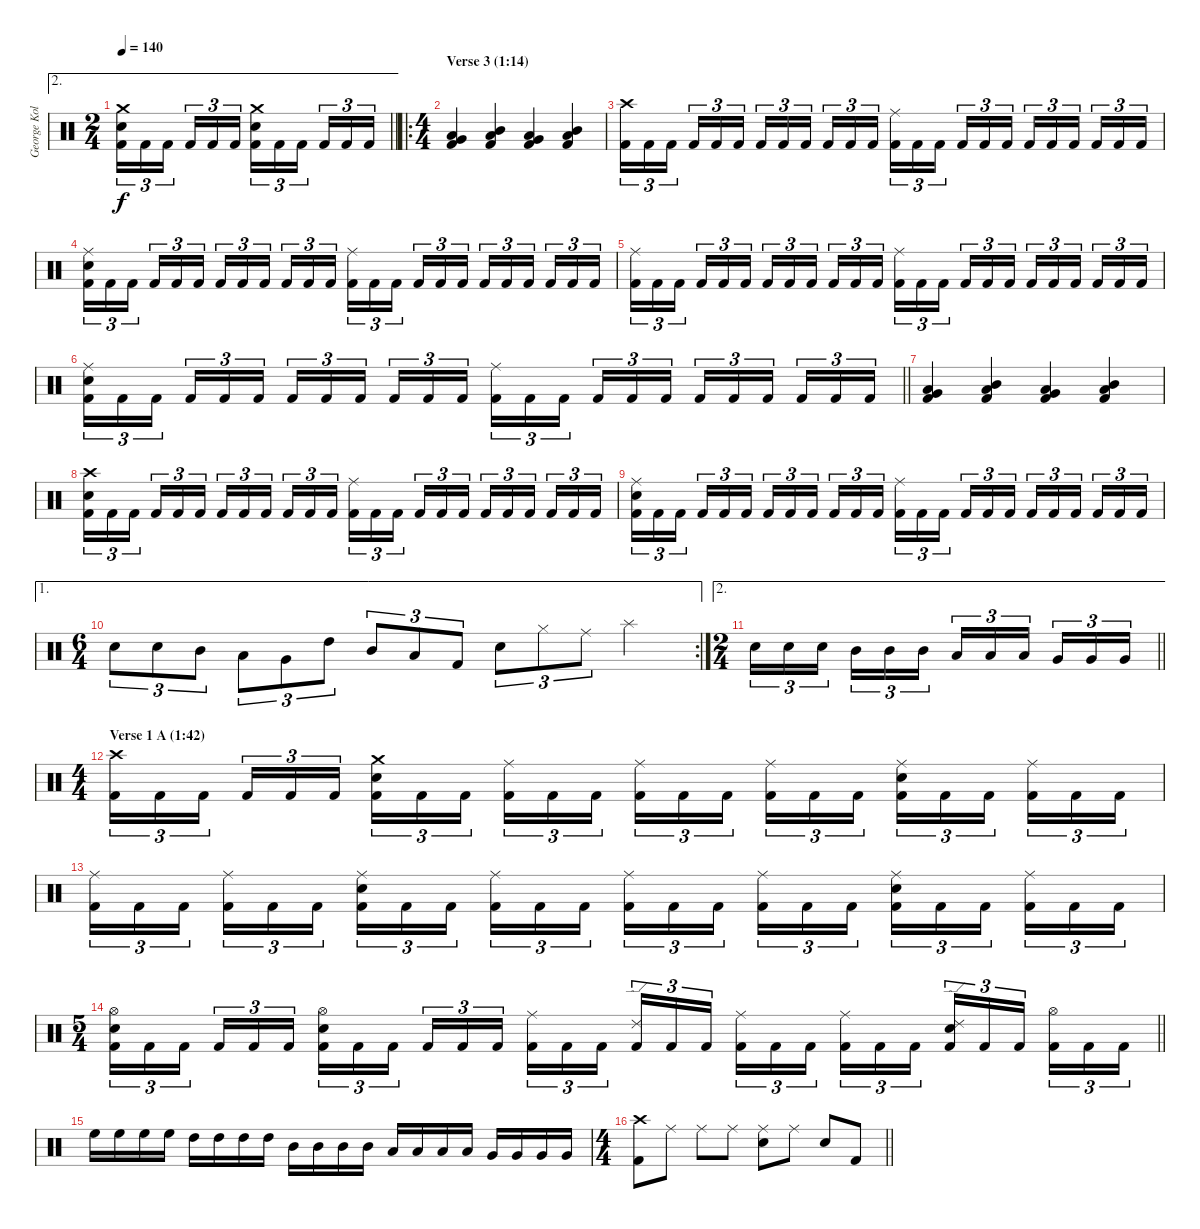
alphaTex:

\track ("George Kollias" "George Kol") {instrument percussion}
\staff {score}
\articulation defaults
\ae 2
\ts (2 4)
\tempo 140
\clef neutral
\barLineRight lightlight
\ks c
("Crash medium (hit)" "Electric Snare (hit)" "Kick (hit) 2").16{tu (3 2) dy f} "Kick (hit) 2".16{tu (3 2)} "Kick (hit) 2".16{tu (3 2) beam splitsecondary} "Kick (hit) 2".16{tu (3 2)} "Kick (hit) 2".16{tu (3 2)} "Kick (hit) 2".16{tu (3 2)} ("Crash medium (hit)" "Electric Snare (hit)" "Kick (hit) 2").16{tu (3 2)} "Kick (hit) 2".16{tu (3 2)} "Kick (hit) 2".16{tu (3 2) beam splitsecondary} "Kick (hit) 2".16{tu (3 2)} "Kick (hit) 2".16{tu (3 2)} "Kick (hit) 2".16{tu (3 2)} |
\ro
\ts (4 4)
\section ("" "Verse 3 (1:14)")
("Very Low Tom (hit)" "Low Tom (hit)" "Kick (hit) 2").4 ("Mid Tom (hit)" "Low Tom (hit)" "Kick (hit) 2").4 ("Very Low Tom (hit)" "Low Tom (hit)" "Kick (hit) 2").4 ("Mid Tom (hit)" "Low Tom (hit)" "Kick (hit) 2").4 |
("Crash high (hit)" "Kick (hit) 2").16{tu (3 2)} "Kick (hit) 2".16{tu (3 2)} "Kick (hit) 2".16{tu (3 2) beam splitsecondary} "Kick (hit) 2".16{tu (3 2)} "Kick (hit) 2".16{tu (3 2)} "Kick (hit) 2".16{tu (3 2)} "Kick (hit) 2".16{tu (3 2)} "Kick (hit) 2".16{tu (3 2)} "Kick (hit) 2".16{tu (3 2) beam splitsecondary} "Kick (hit) 2".16{tu (3 2)} "Kick (hit) 2".16{tu (3 2)} "Kick (hit) 2".16{tu (3 2)} ("Ride (middle)" "Kick (hit) 2").16{tu (3 2)} "Kick (hit) 2".16{tu (3 2)} "Kick (hit) 2".16{tu (3 2) beam splitsecondary} "Kick (hit) 2".16{tu (3 2)} "Kick (hit) 2".16{tu (3 2)} "Kick (hit) 2".16{tu (3 2)} "Kick (hit) 2".16{tu (3 2)} "Kick (hit) 2".16{tu (3 2)} "Kick (hit) 2".16{tu (3 2) beam splitsecondary} "Kick (hit) 2".16{tu (3 2)} "Kick (hit) 2".16{tu (3 2)} "Kick (hit) 2".16{tu (3 2)} |
("Ride (middle)" "Electric Snare (hit)" "Kick (hit) 2").16{tu (3 2)} "Kick (hit) 2".16{tu (3 2)} "Kick (hit) 2".16{tu (3 2) beam splitsecondary} "Kick (hit) 2".16{tu (3 2)} "Kick (hit) 2".16{tu (3 2)} "Kick (hit) 2".16{tu (3 2)} "Kick (hit) 2".16{tu (3 2)} "Kick (hit) 2".16{tu (3 2)} "Kick (hit) 2".16{tu (3 2) beam splitsecondary} "Kick (hit) 2".16{tu (3 2)} "Kick (hit) 2".16{tu (3 2)} "Kick (hit) 2".16{tu (3 2)} ("Ride (middle)" "Kick (hit) 2").16{tu (3 2)} "Kick (hit) 2".16{tu (3 2)} "Kick (hit) 2".16{tu (3 2) beam splitsecondary} "Kick (hit) 2".16{tu (3 2)} "Kick (hit) 2".16{tu (3 2)} "Kick (hit) 2".16{tu (3 2)} "Kick (hit) 2".16{tu (3 2)} "Kick (hit) 2".16{tu (3 2)} "Kick (hit) 2".16{tu (3 2) beam splitsecondary} "Kick (hit) 2".16{tu (3 2)} "Kick (hit) 2".16{tu (3 2)} "Kick (hit) 2".16{tu (3 2)} |
("Ride (middle)" "Kick (hit) 2").16{tu (3 2)} "Kick (hit) 2".16{tu (3 2)} "Kick (hit) 2".16{tu (3 2) beam splitsecondary} "Kick (hit) 2".16{tu (3 2)} "Kick (hit) 2".16{tu (3 2)} "Kick (hit) 2".16{tu (3 2)} "Kick (hit) 2".16{tu (3 2)} "Kick (hit) 2".16{tu (3 2)} "Kick (hit) 2".16{tu (3 2) beam splitsecondary} "Kick (hit) 2".16{tu (3 2)} "Kick (hit) 2".16{tu (3 2)} "Kick (hit) 2".16{tu (3 2)} ("Ride (middle)" "Kick (hit) 2").16{tu (3 2)} "Kick (hit) 2".16{tu (3 2)} "Kick (hit) 2".16{tu (3 2) beam splitsecondary} "Kick (hit) 2".16{tu (3 2)} "Kick (hit) 2".16{tu (3 2)} "Kick (hit) 2".16{tu (3 2)} "Kick (hit) 2".16{tu (3 2)} "Kick (hit) 2".16{tu (3 2)} "Kick (hit) 2".16{tu (3 2) beam splitsecondary} "Kick (hit) 2".16{tu (3 2)} "Kick (hit) 2".16{tu (3 2)} "Kick (hit) 2".16{tu (3 2)} |
\barLineRight lightlight
("Ride (middle)" "Electric Snare (hit)" "Kick (hit) 2").16{tu (3 2)} "Kick (hit) 2".16{tu (3 2)} "Kick (hit) 2".16{tu (3 2) beam splitsecondary} "Kick (hit) 2".16{tu (3 2)} "Kick (hit) 2".16{tu (3 2)} "Kick (hit) 2".16{tu (3 2)} "Kick (hit) 2".16{tu (3 2)} "Kick (hit) 2".16{tu (3 2)} "Kick (hit) 2".16{tu (3 2) beam splitsecondary} "Kick (hit) 2".16{tu (3 2)} "Kick (hit) 2".16{tu (3 2)} "Kick (hit) 2".16{tu (3 2)} ("Ride (middle)" "Kick (hit) 2").16{tu (3 2)} "Kick (hit) 2".16{tu (3 2)} "Kick (hit) 2".16{tu (3 2) beam splitsecondary} "Kick (hit) 2".16{tu (3 2)} "Kick (hit) 2".16{tu (3 2)} "Kick (hit) 2".16{tu (3 2)} "Kick (hit) 2".16{tu (3 2)} "Kick (hit) 2".16{tu (3 2)} "Kick (hit) 2".16{tu (3 2) beam splitsecondary} "Kick (hit) 2".16{tu (3 2)} "Kick (hit) 2".16{tu (3 2)} "Kick (hit) 2".16{tu (3 2)} |
("Very Low Tom (hit)" "Low Tom (hit)" "Kick (hit) 2").4 ("Mid Tom (hit)" "Low Tom (hit)" "Kick (hit) 2").4 ("Very Low Tom (hit)" "Low Tom (hit)" "Kick (hit) 2").4 ("Mid Tom (hit)" "Low Tom (hit)" "Kick (hit) 2").4 |
("Crash high (hit)" "Electric Snare (hit)" "Kick (hit) 2").16{tu (3 2)} "Kick (hit) 2".16{tu (3 2)} "Kick (hit) 2".16{tu (3 2) beam splitsecondary} "Kick (hit) 2".16{tu (3 2)} "Kick (hit) 2".16{tu (3 2)} "Kick (hit) 2".16{tu (3 2)} "Kick (hit) 2".16{tu (3 2)} "Kick (hit) 2".16{tu (3 2)} "Kick (hit) 2".16{tu (3 2) beam splitsecondary} "Kick (hit) 2".16{tu (3 2)} "Kick (hit) 2".16{tu (3 2)} "Kick (hit) 2".16{tu (3 2)} ("Ride (middle)" "Kick (hit) 2").16{tu (3 2)} "Kick (hit) 2".16{tu (3 2)} "Kick (hit) 2".16{tu (3 2) beam splitsecondary} "Kick (hit) 2".16{tu (3 2)} "Kick (hit) 2".16{tu (3 2)} "Kick (hit) 2".16{tu (3 2)} "Kick (hit) 2".16{tu (3 2)} "Kick (hit) 2".16{tu (3 2)} "Kick (hit) 2".16{tu (3 2) beam splitsecondary} "Kick (hit) 2".16{tu (3 2)} "Kick (hit) 2".16{tu (3 2)} "Kick (hit) 2".16{tu (3 2)} |
("Ride (middle)" "Electric Snare (hit)" "Kick (hit) 2").16{tu (3 2)} "Kick (hit) 2".16{tu (3 2)} "Kick (hit) 2".16{tu (3 2) beam splitsecondary} "Kick (hit) 2".16{tu (3 2)} "Kick (hit) 2".16{tu (3 2)} "Kick (hit) 2".16{tu (3 2)} "Kick (hit) 2".16{tu (3 2)} "Kick (hit) 2".16{tu (3 2)} "Kick (hit) 2".16{tu (3 2) beam splitsecondary} "Kick (hit) 2".16{tu (3 2)} "Kick (hit) 2".16{tu (3 2)} "Kick (hit) 2".16{tu (3 2)} ("Ride (middle)" "Kick (hit) 2").16{tu (3 2)} "Kick (hit) 2".16{tu (3 2)} "Kick (hit) 2".16{tu (3 2) beam splitsecondary} "Kick (hit) 2".16{tu (3 2)} "Kick (hit) 2".16{tu (3 2)} "Kick (hit) 2".16{tu (3 2)} "Kick (hit) 2".16{tu (3 2)} "Kick (hit) 2".16{tu (3 2)} "Kick (hit) 2".16{tu (3 2) beam splitsecondary} "Kick (hit) 2".16{tu (3 2)} "Kick (hit) 2".16{tu (3 2)} "Kick (hit) 2".16{tu (3 2)} |
\ae 1
\rc 2
\ts (6 4)
"Electric Snare (hit)".8{tu (3 2)} "Electric Snare (hit)".8{tu (3 2)} "Mid Tom (hit)".8{tu (3 2)} "Low Tom (hit)".8{tu (3 2)} "Very Low Tom (hit)".8{tu (3 2)} "High Tom (hit)".8{tu (3 2)} "Mid Tom (hit)".8{tu (3 2)} "Low Tom (hit)".8{tu (3 2)} "Kick (hit) 2".8{tu (3 2)} "Electric Snare (hit)".8{tu (3 2)} "Hi-Hat (closed)".8{tu (3 2)} "Ride (middle)".8{tu (3 2)} "Splash (hit)".2 |
\ae 2
\ts (2 4)
\barLineRight lightlight "Electric Snare (hit)".16{tu (3 2)} "Electric Snare (hit)".16{tu (3 2)} "Electric Snare (hit)".16{tu (3 2) beam splitsecondary} "Mid Tom (hit)".16{tu (3 2)} "Mid Tom (hit)".16{tu (3 2)} "Mid Tom (hit)".16{tu (3 2)} "Low Tom (hit)".16{tu (3 2)} "Low Tom (hit)".16{tu (3 2)} "Low Tom (hit)".16{tu (3 2) beam splitsecondary} "Very Low Tom (hit)".16{tu (3 2)} "Very Low Tom (hit)".16{tu (3 2)} "Very Low Tom (hit)".16{tu (3 2)}
|
\ts (4 4)
\section ("" "Verse 1 A (1:42)")
("Crash high (hit)" "Kick (hit) 2").16{tu (3 2)} "Kick (hit) 2".16{tu (3 2)} "Kick (hit) 2".16{tu (3 2) beam splitsecondary} "Kick (hit) 2".16{tu (3 2)} "Kick (hit) 2".16{tu (3 2)} "Kick (hit) 2".16{tu (3 2)} ("Crash medium (hit)" "Electric Snare (hit)" "Kick (hit) 2").16{tu (3 2)} "Kick (hit) 2".16{tu (3 2)} "Kick (hit) 2".16{tu (3 2) beam splitsecondary} ("Ride (middle)" "Kick (hit) 2").16{tu (3 2)} "Kick (hit) 2".16{tu (3 2)} "Kick (hit) 2".16{tu (3 2)} ("Ride (middle)" "Kick (hit) 2").16{tu (3 2)} "Kick (hit) 2".16{tu (3 2)} "Kick (hit) 2".16{tu (3 2) beam splitsecondary} ("Ride (middle)" "Kick (hit) 2").16{tu (3 2)} "Kick (hit) 2".16{tu (3 2)} "Kick (hit) 2".16{tu (3 2)} ("Ride (middle)" "Electric Snare (hit)" "Kick (hit) 2").16{tu (3 2)} "Kick (hit) 2".16{tu (3 2)} "Kick (hit) 2".16{tu (3 2) beam splitsecondary} ("Ride (middle)" "Kick (hit) 2").16{tu (3 2)} "Kick (hit) 2".16{tu (3 2)} "Kick (hit) 2".16{tu (3 2)} |
("Ride (middle)" "Kick (hit) 2").16{tu (3 2)} "Kick (hit) 2".16{tu (3 2)} "Kick (hit) 2".16{tu (3 2) beam splitsecondary} ("Ride (middle)" "Kick (hit) 2").16{tu (3 2)} "Kick (hit) 2".16{tu (3 2)} "Kick (hit) 2".16{tu (3 2)} ("Ride (middle)" "Electric Snare (hit)" "Kick (hit) 2").16{tu (3 2)} "Kick (hit) 2".16{tu (3 2)} "Kick (hit) 2".16{tu (3 2) beam splitsecondary} ("Ride (middle)" "Kick (hit) 2").16{tu (3 2)} "Kick (hit) 2".16{tu (3 2)} "Kick (hit) 2".16{tu (3 2)} ("Ride (middle)" "Kick (hit) 2").16{tu (3 2)} "Kick (hit) 2".16{tu (3 2)} "Kick (hit) 2".16{tu (3 2) beam splitsecondary} ("Ride (middle)" "Kick (hit) 2").16{tu (3 2)} "Kick (hit) 2".16{tu (3 2)} "Kick (hit) 2".16{tu (3 2)} ("Ride (middle)" "Electric Snare (hit)" "Kick (hit) 2").16{tu (3 2)} "Kick (hit) 2".16{tu (3 2)} "Kick (hit) 2".16{tu (3 2) beam splitsecondary} ("Ride (middle)" "Kick (hit) 2").16{tu (3 2)} "Kick (hit) 2".16{tu (3 2)} "Kick (hit) 2".16{tu (3 2)} |
\ts (5 4)
\barLineRight lightlight
("Hi-Hat (open)" "Electric Snare (hit)" "Kick (hit) 2").16{tu (3 2)} "Kick (hit) 2".16{tu (3 2)} "Kick (hit) 2".16{tu (3 2) beam splitsecondary} "Kick (hit) 2".16{tu (3 2)} "Kick (hit) 2".16{tu (3 2)} "Kick (hit) 2".16{tu (3 2)} ("Hi-Hat (open)" "Electric Snare (hit)" "Kick (hit) 2").16{tu (3 2)} "Kick (hit) 2".16{tu (3 2)} "Kick (hit) 2".16{tu (3 2) beam splitsecondary} "Kick (hit) 2".16{tu (3 2)} "Kick (hit) 2".16{tu (3 2)} "Kick (hit) 2".16{tu (3 2)} ("Ride (middle)" "Kick (hit) 2").16{tu (3 2)} "Kick (hit) 2".16{tu (3 2)} "Kick (hit) 2".16{tu (3 2) beam splitsecondary} ("Ride (edge) 2" "Kick (hit) 2").16{tu (3 2)} "Kick (hit) 2".16{tu (3 2)} "Kick (hit) 2".16{tu (3 2)} ("Ride (middle)" "Kick (hit) 2").16{tu (3 2)} "Kick (hit) 2".16{tu (3 2)} "Kick (hit) 2".16{tu (3 2) beam splitsecondary} ("Ride (middle)" "Kick (hit) 2").16{tu (3 2)} "Kick (hit) 2".16{tu (3 2)} "Kick (hit) 2".16{tu (3 2)} ("Ride (edge) 2" "Electric Snare (hit)" "Kick (hit) 2").16{tu (3 2)} "Kick (hit) 2".16{tu (3 2)} "Kick (hit) 2".16{tu (3 2) beam splitsecondary} ("Hi-Hat (open)" "Kick (hit) 2").16{tu (3 2)} "Kick (hit) 2".16{tu (3 2)} "Kick (hit) 2".16{tu (3 2)} |
"High Floor Tom (hit)".16 "High Floor Tom (hit)".16 "High Floor Tom (hit)".16 "High Floor Tom (hit)".16 "High Tom (hit)".16 "High Tom (hit)".16 "High Tom (hit)".16 "High Tom (hit)".16 "Mid Tom (hit)".16 "Mid Tom (hit)".16 "Mid Tom (hit)".16 "Mid Tom (hit)".16 "Low Tom (hit)".16 "Low Tom (hit)".16 "Low Tom (hit)".16 "Low Tom (hit)".16 "Very Low Tom (hit)".16 "Very Low Tom (hit)".16 "Very Low Tom (hit)".16 "Very Low Tom (hit)".16 |
\ts (4 4)
\barLineRight lightlight
("Crash high (hit)" "Kick (hit) 2").8 "Ride (middle)".8 "Ride (middle)".8 "Ride (middle)".8 ("Ride (middle)" "Electric Snare (hit)").8 "Ride (middle)".8 "Electric Snare (hit)".8 "Kick (hit) 2".8
